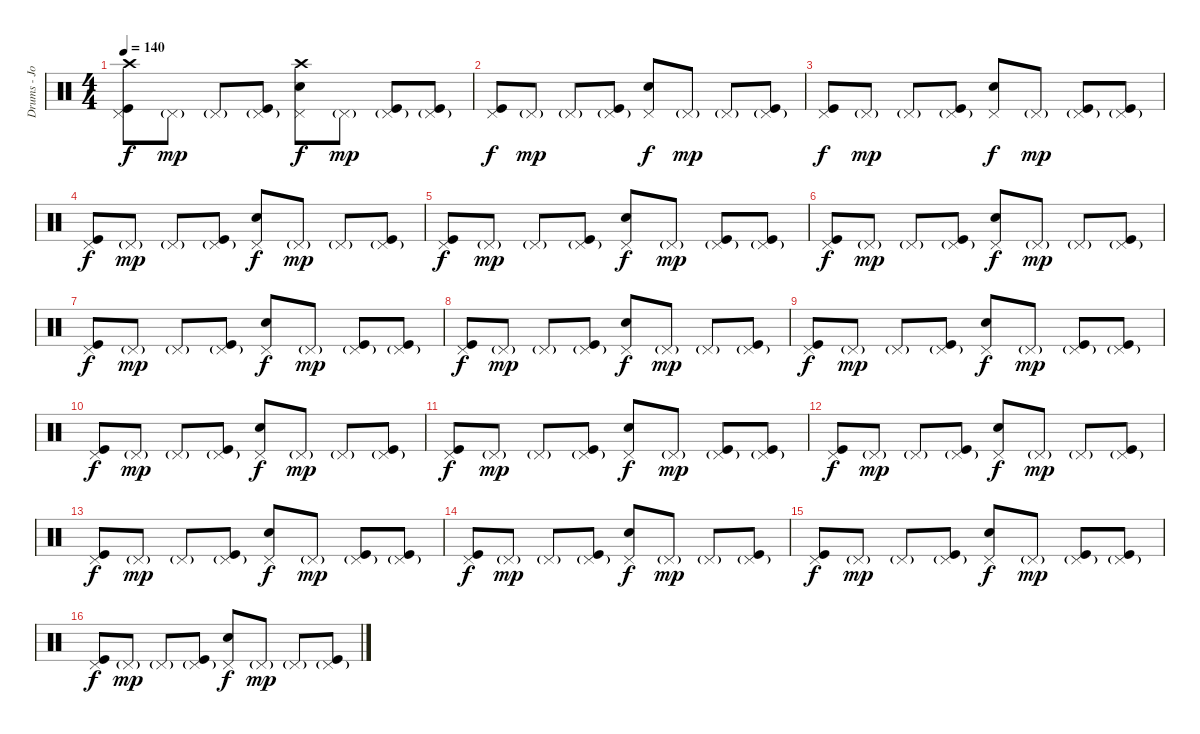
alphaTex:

\track ("Drums - Josh Klinghoffer" "Drums - Jo") {instrument percussion}
\staff {score}
\articulation defaults
\ts (4 4)
\tempo 140
\clef neutral
\ks c
("Crash high (hit)" "Pedal Hi-Hat (hit)" "Kick (hit)").8{dy f} "Pedal Hi-Hat (hit)"{g}.8{dy mp} "Pedal Hi-Hat (hit)"{g}.8 ("Pedal Hi-Hat (hit)"{g} "Kick (hit)").8 ("Crash high (hit)" "Pedal Hi-Hat (hit)" "Electric Snare (hit)").8{dy f} "Pedal Hi-Hat (hit)"{g}.8{dy mp} ("Pedal Hi-Hat (hit)"{g} "Kick (hit)").8 ("Pedal Hi-Hat (hit)"{g} "Kick (hit)").8 |
("Pedal Hi-Hat (hit)" "Kick (hit)").8{dy f} "Pedal Hi-Hat (hit)"{g}.8{dy mp} "Pedal Hi-Hat (hit)"{g}.8 ("Pedal Hi-Hat (hit)"{g} "Kick (hit)").8 ("Pedal Hi-Hat (hit)" "Electric Snare (hit)").8{dy f} "Pedal Hi-Hat (hit)"{g}.8{dy mp} "Pedal Hi-Hat (hit)"{g}.8 ("Pedal Hi-Hat (hit)"{g} "Kick (hit)").8 |
("Pedal Hi-Hat (hit)" "Kick (hit)").8{dy f} "Pedal Hi-Hat (hit)"{g}.8{dy mp} "Pedal Hi-Hat (hit)"{g}.8 ("Pedal Hi-Hat (hit)"{g} "Kick (hit)").8 ("Pedal Hi-Hat (hit)" "Electric Snare (hit)").8{dy f} "Pedal Hi-Hat (hit)"{g}.8{dy mp} ("Pedal Hi-Hat (hit)"{g} "Kick (hit)").8 ("Pedal Hi-Hat (hit)"{g} "Kick (hit)").8 |
("Pedal Hi-Hat (hit)" "Kick (hit)").8{dy f} "Pedal Hi-Hat (hit)"{g}.8{dy mp} "Pedal Hi-Hat (hit)"{g}.8 ("Pedal Hi-Hat (hit)"{g} "Kick (hit)").8 ("Pedal Hi-Hat (hit)" "Electric Snare (hit)").8{dy f} "Pedal Hi-Hat (hit)"{g}.8{dy mp} "Pedal Hi-Hat (hit)"{g}.8 ("Pedal Hi-Hat (hit)"{g} "Kick (hit)").8 |
("Pedal Hi-Hat (hit)" "Kick (hit)").8{dy f} "Pedal Hi-Hat (hit)"{g}.8{dy mp} "Pedal Hi-Hat (hit)"{g}.8 ("Pedal Hi-Hat (hit)"{g} "Kick (hit)").8 ("Pedal Hi-Hat (hit)" "Electric Snare (hit)").8{dy f} "Pedal Hi-Hat (hit)"{g}.8{dy mp} ("Pedal Hi-Hat (hit)"{g} "Kick (hit)").8 ("Pedal Hi-Hat (hit)"{g} "Kick (hit)").8 |
("Pedal Hi-Hat (hit)" "Kick (hit)").8{dy f} "Pedal Hi-Hat (hit)"{g}.8{dy mp} "Pedal Hi-Hat (hit)"{g}.8 ("Pedal Hi-Hat (hit)"{g} "Kick (hit)").8 ("Pedal Hi-Hat (hit)" "Electric Snare (hit)").8{dy f} "Pedal Hi-Hat (hit)"{g}.8{dy mp} "Pedal Hi-Hat (hit)"{g}.8 ("Pedal Hi-Hat (hit)"{g} "Kick (hit)").8 |
("Pedal Hi-Hat (hit)" "Kick (hit)").8{dy f} "Pedal Hi-Hat (hit)"{g}.8{dy mp} "Pedal Hi-Hat (hit)"{g}.8 ("Pedal Hi-Hat (hit)"{g} "Kick (hit)").8 ("Pedal Hi-Hat (hit)" "Electric Snare (hit)").8{dy f} "Pedal Hi-Hat (hit)"{g}.8{dy mp} ("Pedal Hi-Hat (hit)"{g} "Kick (hit)").8 ("Pedal Hi-Hat (hit)"{g} "Kick (hit)").8 |
("Pedal Hi-Hat (hit)" "Kick (hit)").8{dy f} "Pedal Hi-Hat (hit)"{g}.8{dy mp} "Pedal Hi-Hat (hit)"{g}.8 ("Pedal Hi-Hat (hit)"{g} "Kick (hit)").8 ("Pedal Hi-Hat (hit)" "Electric Snare (hit)").8{dy f} "Pedal Hi-Hat (hit)"{g}.8{dy mp} "Pedal Hi-Hat (hit)"{g}.8 ("Pedal Hi-Hat (hit)"{g} "Kick (hit)").8 |
("Pedal Hi-Hat (hit)" "Kick (hit)").8{dy f} "Pedal Hi-Hat (hit)"{g}.8{dy mp} "Pedal Hi-Hat (hit)"{g}.8 ("Pedal Hi-Hat (hit)"{g} "Kick (hit)").8 ("Pedal Hi-Hat (hit)" "Electric Snare (hit)").8{dy f} "Pedal Hi-Hat (hit)"{g}.8{dy mp} ("Pedal Hi-Hat (hit)"{g} "Kick (hit)").8 ("Pedal Hi-Hat (hit)"{g} "Kick (hit)").8 |
("Pedal Hi-Hat (hit)" "Kick (hit)").8{dy f} "Pedal Hi-Hat (hit)"{g}.8{dy mp} "Pedal Hi-Hat (hit)"{g}.8 ("Pedal Hi-Hat (hit)"{g} "Kick (hit)").8 ("Pedal Hi-Hat (hit)" "Electric Snare (hit)").8{dy f} "Pedal Hi-Hat (hit)"{g}.8{dy mp} "Pedal Hi-Hat (hit)"{g}.8 ("Pedal Hi-Hat (hit)"{g} "Kick (hit)").8 |
("Pedal Hi-Hat (hit)" "Kick (hit)").8{dy f} "Pedal Hi-Hat (hit)"{g}.8{dy mp} "Pedal Hi-Hat (hit)"{g}.8 ("Pedal Hi-Hat (hit)"{g} "Kick (hit)").8 ("Pedal Hi-Hat (hit)" "Electric Snare (hit)").8{dy f} "Pedal Hi-Hat (hit)"{g}.8{dy mp} ("Pedal Hi-Hat (hit)"{g} "Kick (hit)").8 ("Pedal Hi-Hat (hit)"{g} "Kick (hit)").8 |
("Pedal Hi-Hat (hit)" "Kick (hit)").8{dy f} "Pedal Hi-Hat (hit)"{g}.8{dy mp} "Pedal Hi-Hat (hit)"{g}.8 ("Pedal Hi-Hat (hit)"{g} "Kick (hit)").8 ("Pedal Hi-Hat (hit)" "Electric Snare (hit)").8{dy f} "Pedal Hi-Hat (hit)"{g}.8{dy mp} "Pedal Hi-Hat (hit)"{g}.8 ("Pedal Hi-Hat (hit)"{g} "Kick (hit)").8 |
("Pedal Hi-Hat (hit)" "Kick (hit)").8{dy f} "Pedal Hi-Hat (hit)"{g}.8{dy mp} "Pedal Hi-Hat (hit)"{g}.8 ("Pedal Hi-Hat (hit)"{g} "Kick (hit)").8 ("Pedal Hi-Hat (hit)" "Electric Snare (hit)").8{dy f} "Pedal Hi-Hat (hit)"{g}.8{dy mp} ("Pedal Hi-Hat (hit)"{g} "Kick (hit)").8 ("Pedal Hi-Hat (hit)"{g} "Kick (hit)").8 |
("Pedal Hi-Hat (hit)" "Kick (hit)").8{dy f} "Pedal Hi-Hat (hit)"{g}.8{dy mp} "Pedal Hi-Hat (hit)"{g}.8 ("Pedal Hi-Hat (hit)"{g} "Kick (hit)").8 ("Pedal Hi-Hat (hit)" "Electric Snare (hit)").8{dy f} "Pedal Hi-Hat (hit)"{g}.8{dy mp} "Pedal Hi-Hat (hit)"{g}.8 ("Pedal Hi-Hat (hit)"{g} "Kick (hit)").8 |
("Pedal Hi-Hat (hit)" "Kick (hit)").8{dy f} "Pedal Hi-Hat (hit)"{g}.8{dy mp} "Pedal Hi-Hat (hit)"{g}.8 ("Pedal Hi-Hat (hit)"{g} "Kick (hit)").8 ("Pedal Hi-Hat (hit)" "Electric Snare (hit)").8{dy f} "Pedal Hi-Hat (hit)"{g}.8{dy mp} ("Pedal Hi-Hat (hit)"{g} "Kick (hit)").8 ("Pedal Hi-Hat (hit)"{g} "Kick (hit)").8 |
("Pedal Hi-Hat (hit)" "Kick (hit)").8{dy f} "Pedal Hi-Hat (hit)"{g}.8{dy mp} "Pedal Hi-Hat (hit)"{g}.8 ("Pedal Hi-Hat (hit)"{g} "Kick (hit)").8 ("Pedal Hi-Hat (hit)" "Electric Snare (hit)").8{dy f} "Pedal Hi-Hat (hit)"{g}.8{dy mp} "Pedal Hi-Hat (hit)"{g}.8 ("Pedal Hi-Hat (hit)"{g} "Kick (hit)").8
